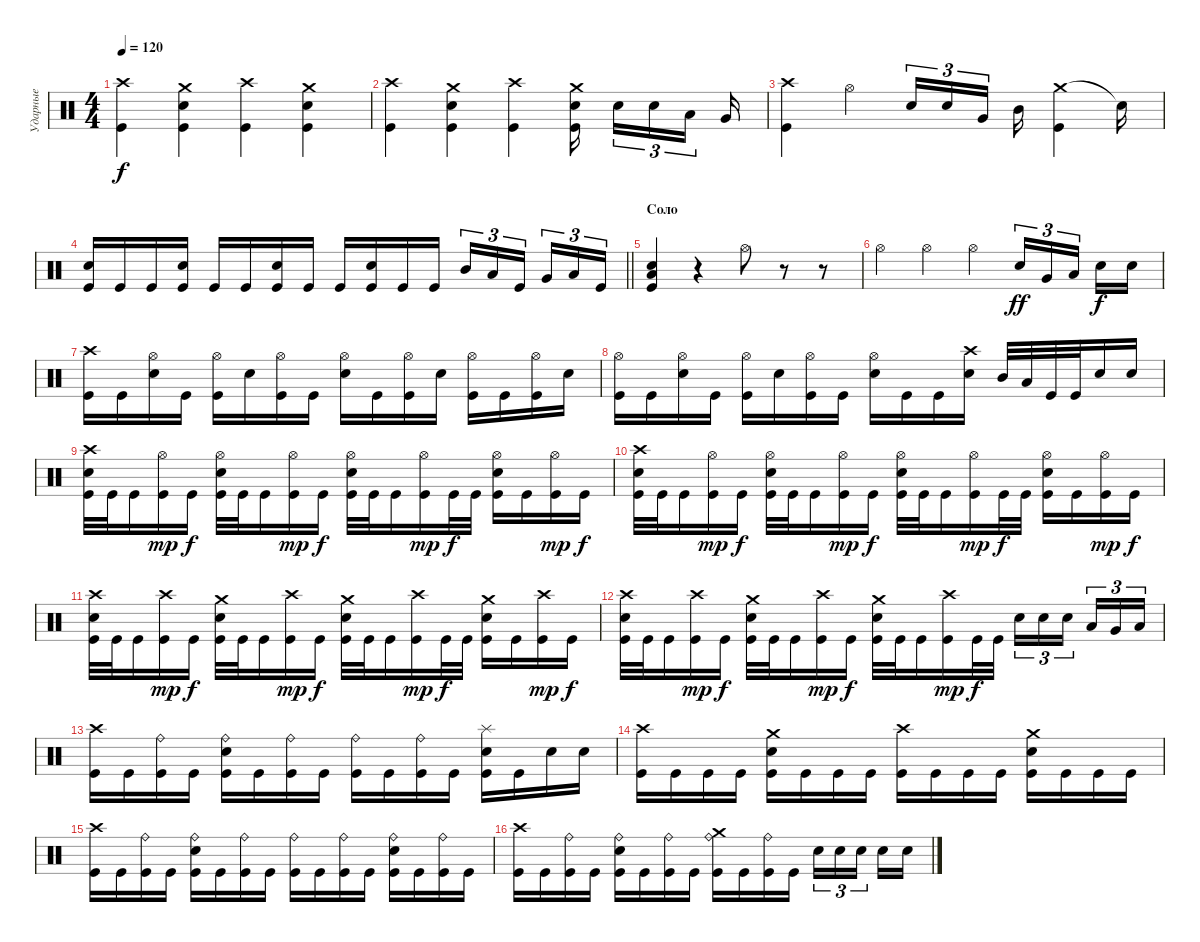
\track ("Ударные" "Ударные") {instrument percussion}
\staff {score}
\articulation defaults
\ts (4 4)
\tempo 120
\clef neutral
\ks c
("Kick (hit)" "Crash high (hit)").4{dy f} ("Kick (hit)" "Snare (hit) 2" "Crash medium (hit)").4 ("Kick (hit)" "Crash high (hit)").4 ("Kick (hit)" "Snare (hit) 2" "Crash medium (hit)").4 |
("Kick (hit)" "Crash high (hit)").4 ("Kick (hit)" "Snare (hit) 2" "Crash medium (hit)").4 ("Kick (hit)" "Crash high (hit)").4 ("Kick (hit)" "Snare (hit) 2" "Crash medium (hit)").16 "Snare (hit) 2".16{tu (3 2)} "Snare (hit) 2".16{tu (3 2)} "Low Tom (hit)".16{tu (3 2)} "Very Low Tom (hit)".16 |
("Kick (hit)" "Crash high (hit)").4 "Hi-Hat (open)".4 "Snare (hit) 2".16{tu (3 2)} "Snare (hit) 2".16{tu (3 2)} "Very Low Tom (hit)".16{tu (3 2)} "Mid Tom (hit)".16 ("Crash medium (hit)" "Kick (hit)").4 "Snare (hit)"{t}.16 |
\barLineRight lightlight
("Kick (hit)" "Snare (hit) 2").16 "Kick (hit)".16 "Kick (hit)".16 ("Kick (hit)" "Snare (hit) 2").16 "Kick (hit)".16 "Kick (hit)".16 ("Kick (hit)" "Snare (hit) 2").16 "Kick (hit)".16 "Kick (hit)".16 ("Kick (hit)" "Snare (hit) 2").16 "Kick (hit)".16 "Kick (hit)".16 "Mid Tom (hit)".16{tu (3 2)} "Low Tom (hit)".16{tu (3 2)} "Kick (hit)".16{tu (3 2)} "Very Low Tom (hit)".16{tu (3 2)} "Low Floor Tom (hit)".16{tu (3 2)} "Kick (hit)".16{tu (3 2)} |
\section ("" "Соло")
("Kick (hit)" "Snare (hit) 2" "Low Floor Tom (hit)").4 r.4 "Hi-Hat (open)".8 r.8 r.8 |
"Hi-Hat (open)".4 "Hi-Hat (open)".4 "Hi-Hat (open)".4 "Snare (hit) 2".16{tu (3 2) dy ff} "Very Low Tom (hit)".16{tu (3 2)} "Low Tom (hit)".16{tu (3 2)} "Snare (hit) 2".16{dy f} "Snare (hit) 2".16 |
("Kick (hit)" "Crash high (hit)").16 "Kick (hit)".16 ("Snare (hit) 2" "Hi-Hat (open)").16 "Kick (hit)".16 ("Kick (hit)" "Hi-Hat (open)").16 "Snare (hit) 2".16 ("Kick (hit)" "Hi-Hat (open)").16 "Kick (hit)".16 ("Snare (hit) 2" "Hi-Hat (open)").16 "Kick (hit)".16 ("Kick (hit)" "Hi-Hat (open)").16 "Snare (hit) 2".16 ("Kick (hit)" "Hi-Hat (open)").16 "Kick (hit)".16 ("Kick (hit)" "Hi-Hat (open)").16 "Snare (hit) 2".16 |
("Kick (hit)" "Hi-Hat (open)").16 "Kick (hit)".16 ("Snare (hit) 2" "Hi-Hat (open)").16 "Kick (hit)".16 ("Kick (hit)" "Hi-Hat (open)").16 "Snare (hit) 2".16 ("Kick (hit)" "Hi-Hat (open)").16 "Kick (hit)".16 ("Snare (hit) 2" "Hi-Hat (open)").16 "Kick (hit)".16 "Kick (hit)".16 ("Snare (hit) 2" "Crash high (hit)").16 "Mid Tom (hit)".32 "Low Tom (hit)".32 "Kick (hit)".32 "Kick (hit)".32 "Snare (hit) 2".16 "Snare (hit) 2".16 |
("Snare (hit) 2" "Crash high (hit)" "Kick (hit)").32 "Kick (hit)".32 "Kick (hit)".16 ("Hi-Hat (open)" "Kick (hit)").16{dy mp} "Kick (hit)".16{dy f} ("Snare (hit) 2" "Hi-Hat (open)" "Kick (hit)").32 "Kick (hit)".32 "Kick (hit)".16 ("Hi-Hat (open)" "Kick (hit)").16{dy mp} "Kick (hit)".16{dy f} ("Snare (hit) 2" "Hi-Hat (open)" "Kick (hit)").32 "Kick (hit)".32 "Kick (hit)".16 ("Hi-Hat (open)" "Kick (hit)").16{dy mp} "Kick (hit)".32{dy f} "Kick (hit)".32 ("Snare (hit) 2" "Hi-Hat (open)" "Kick (hit)").16 "Kick (hit)".16 ("Hi-Hat (open)" "Kick (hit)").16{dy mp} "Kick (hit)".16{dy f} |
("Snare (hit) 2" "Crash high (hit)" "Kick (hit)").32 "Kick (hit)".32 "Kick (hit)".16 ("Hi-Hat (open)" "Kick (hit)").16{dy mp} "Kick (hit)".16{dy f} ("Snare (hit) 2" "Hi-Hat (open)" "Kick (hit)").32 "Kick (hit)".32 "Kick (hit)".16 ("Hi-Hat (open)" "Kick (hit)").16{dy mp} "Kick (hit)".16{dy f} ("Snare (hit) 2" "Hi-Hat (open)" "Kick (hit)").32 "Kick (hit)".32 "Kick (hit)".16 ("Hi-Hat (open)" "Kick (hit)").16{dy mp} "Kick (hit)".32{dy f} "Kick (hit)".32 ("Snare (hit) 2" "Hi-Hat (open)" "Kick (hit)").16 "Kick (hit)".16 ("Hi-Hat (open)" "Kick (hit)").16{dy mp} "Kick (hit)".16{dy f} |
("Snare (hit) 2" "Crash high (hit)" "Kick (hit)").32 "Kick (hit)".32 "Kick (hit)".16 ("Crash high (hit)" "Kick (hit)").16{dy mp} "Kick (hit)".16{dy f} ("Snare (hit) 2" "Crash medium (hit)" "Kick (hit)").32 "Kick (hit)".32 "Kick (hit)".16 ("Crash high (hit)" "Kick (hit)").16{dy mp} "Kick (hit)".16{dy f} ("Snare (hit) 2" "Crash medium (hit)" "Kick (hit)").32 "Kick (hit)".32 "Kick (hit)".16 ("Crash high (hit)" "Kick (hit)").16{dy mp} "Kick (hit)".32{dy f} "Kick (hit)".32 ("Snare (hit) 2" "Crash medium (hit)" "Kick (hit)").16 "Kick (hit)".16 ("Crash high (hit)" "Kick (hit)").16{dy mp} "Kick (hit)".16{dy f} |
("Snare (hit) 2" "Crash high (hit)" "Kick (hit)").32 "Kick (hit)".32 "Kick (hit)".16 ("Crash high (hit)" "Kick (hit)").16{dy mp} "Kick (hit)".16{dy f} ("Snare (hit) 2" "Crash medium (hit)" "Kick (hit)").32 "Kick (hit)".32 "Kick (hit)".16 ("Crash high (hit)" "Kick (hit)").16{dy mp} "Kick (hit)".16{dy f} ("Snare (hit) 2" "Crash medium (hit)" "Kick (hit)").32 "Kick (hit)".32 "Kick (hit)".16 ("Crash high (hit)" "Kick (hit)").16{dy mp} "Kick (hit)".32{dy f} "Kick (hit)".32 "Snare (hit) 2".16{tu (3 2)} "Snare (hit) 2".16{tu (3 2)} "Snare (hit) 2".16{tu (3 2)} "Low Tom (hit)".16{tu (3 2)} "Very Low Tom (hit)".16{tu (3 2)} "Low Floor Tom (hit)".16{tu (3 2)} |
("Kick (hit)" "Crash high (hit)").16 "Kick (hit)".16 ("Kick (hit)" "Ride (bell)").16 "Kick (hit)".16 ("Kick (hit)" "Snare (hit) 2" "Ride (bell)").16 "Kick (hit)".16 ("Kick (hit)" "Ride (bell)").16 "Kick (hit)".16 ("Kick (hit)" "Ride (bell)").16 "Kick (hit)".16 ("Kick (hit)" "Ride (bell)").16 "Kick (hit)".16 ("Kick (hit)" "Snare (hit) 2" "Splash (hit)").16 "Kick (hit)".16 "Snare (hit) 2".16 "Snare (hit) 2".16 |
("Kick (hit)" "Crash high (hit)").16 "Kick (hit)".16 "Kick (hit)".16 "Kick (hit)".16 ("Kick (hit)" "Snare (hit) 2" "Crash medium (hit)").16 "Kick (hit)".16 "Kick (hit)".16 "Kick (hit)".16 ("Kick (hit)" "Crash high (hit)").16 "Kick (hit)".16 "Kick (hit)".16 "Kick (hit)".16 ("Kick (hit)" "Snare (hit) 2" "Crash medium (hit)").16 "Kick (hit)".16 "Kick (hit)".16 "Kick (hit)".16 |
("Kick (hit)" "Crash high (hit)").16 "Kick (hit)".16 ("Kick (hit)" "Ride (bell)").16 "Kick (hit)".16 ("Kick (hit)" "Snare (hit) 2" "Ride (bell)").16 "Kick (hit)".16 ("Kick (hit)" "Ride (bell)").16 "Kick (hit)".16 ("Kick (hit)" "Ride (bell)").16 "Kick (hit)".16 ("Kick (hit)" "Ride (bell)").16 "Kick (hit)".16 ("Kick (hit)" "Snare (hit) 2" "Ride (bell)").16 "Kick (hit)".16 ("Kick (hit)" "Ride (bell)").16 "Kick (hit)".16 |
("Kick (hit)" "Crash high (hit)").16 "Kick (hit)".16 ("Kick (hit)" "Ride (bell)").16 "Kick (hit)".16 ("Kick (hit)" "Snare (hit) 2" "Ride (bell)").16 "Kick (hit)".16 ("Kick (hit)" "Ride (bell)").16 "Kick (hit)".16 ("Kick (hit)" "Crash medium (hit)" "Ride (bell)").16 "Kick (hit)".16 ("Kick (hit)" "Ride (bell)").16 "Kick (hit)".16 "Snare (hit) 2".16{tu (3 2)} "Snare (hit) 2".16{tu (3 2)} "Snare (hit) 2".16{tu (3 2)} "Snare (hit) 2".16 "Snare (hit) 2".16
